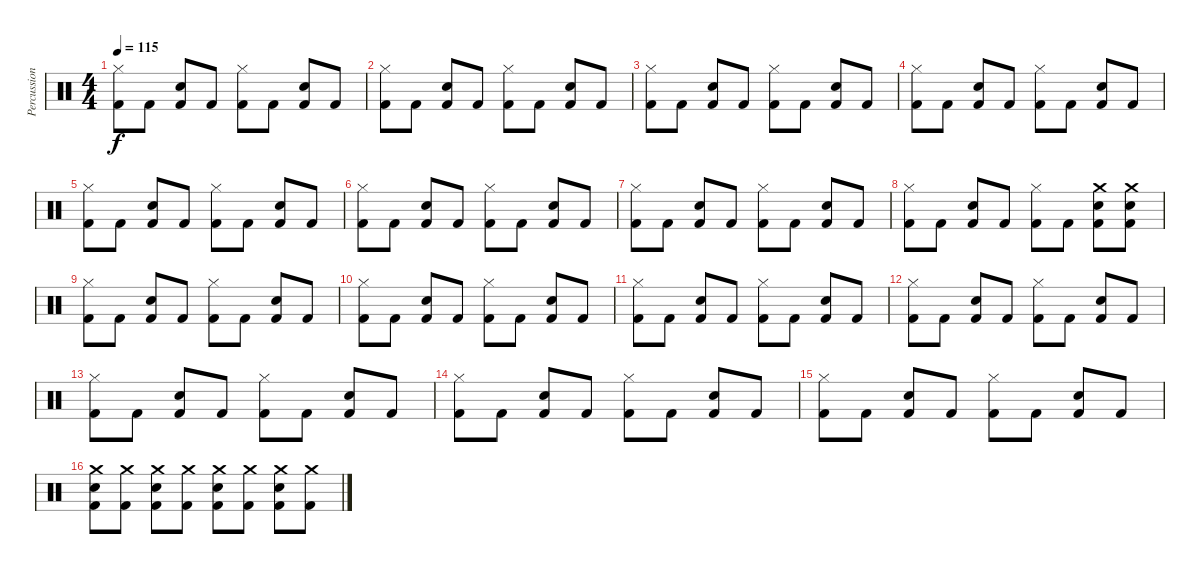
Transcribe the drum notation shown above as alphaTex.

\track ("Percussion" "Percussion") {instrument percussion}
\staff {score}
\articulation defaults
\ts (4 4)
\tempo 115
\clef neutral
\ks c
("Kick (hit) 2" "Hi-Hat (closed)").8{dy f} "Kick (hit) 2".8 ("Kick (hit) 2" "Snare (hit) 2").8 "Kick (hit) 2".8 ("Kick (hit) 2" "Hi-Hat (closed)").8 "Kick (hit) 2".8 ("Kick (hit) 2" "Snare (hit) 2").8 "Kick (hit) 2".8 |
("Kick (hit) 2" "Hi-Hat (closed)").8 "Kick (hit) 2".8 ("Kick (hit) 2" "Snare (hit) 2").8 "Kick (hit) 2".8 ("Kick (hit) 2" "Hi-Hat (closed)").8 "Kick (hit) 2".8 ("Kick (hit) 2" "Snare (hit) 2").8 "Kick (hit) 2".8 |
("Kick (hit) 2" "Hi-Hat (closed)").8 "Kick (hit) 2".8 ("Kick (hit) 2" "Snare (hit) 2").8 "Kick (hit) 2".8 ("Kick (hit) 2" "Hi-Hat (closed)").8 "Kick (hit) 2".8 ("Kick (hit) 2" "Snare (hit) 2").8 "Kick (hit) 2".8 |
("Kick (hit) 2" "Hi-Hat (closed)").8 "Kick (hit) 2".8 ("Kick (hit) 2" "Snare (hit) 2").8 "Kick (hit) 2".8 ("Kick (hit) 2" "Hi-Hat (closed)").8 "Kick (hit) 2".8 ("Kick (hit) 2" "Snare (hit) 2").8 "Kick (hit) 2".8 |
("Kick (hit) 2" "Hi-Hat (closed)").8 "Kick (hit) 2".8 ("Kick (hit) 2" "Snare (hit) 2").8 "Kick (hit) 2".8 ("Kick (hit) 2" "Hi-Hat (closed)").8 "Kick (hit) 2".8 ("Kick (hit) 2" "Snare (hit) 2").8 "Kick (hit) 2".8 |
("Kick (hit) 2" "Hi-Hat (closed)").8 "Kick (hit) 2".8 ("Kick (hit) 2" "Snare (hit) 2").8 "Kick (hit) 2".8 ("Kick (hit) 2" "Hi-Hat (closed)").8 "Kick (hit) 2".8 ("Kick (hit) 2" "Snare (hit) 2").8 "Kick (hit) 2".8 |
("Kick (hit) 2" "Hi-Hat (closed)").8 "Kick (hit) 2".8 ("Kick (hit) 2" "Snare (hit) 2").8 "Kick (hit) 2".8 ("Kick (hit) 2" "Hi-Hat (closed)").8 "Kick (hit) 2".8 ("Kick (hit) 2" "Snare (hit) 2").8 "Kick (hit) 2".8 |
("Kick (hit) 2" "Hi-Hat (closed)").8 "Kick (hit) 2".8 ("Kick (hit) 2" "Snare (hit) 2").8 "Kick (hit) 2".8 ("Kick (hit) 2" "Hi-Hat (closed)").8 "Kick (hit) 2".8 ("Kick (hit) 2" "Snare (hit) 2" "Crash medium (hit)").8 ("Kick (hit) 2" "Snare (hit) 2" "Crash medium (hit)").8 |
("Kick (hit) 2" "Hi-Hat (closed)").8 "Kick (hit) 2".8 ("Kick (hit) 2" "Snare (hit) 2").8 "Kick (hit) 2".8 ("Kick (hit) 2" "Hi-Hat (closed)").8 "Kick (hit) 2".8 ("Kick (hit) 2" "Snare (hit) 2").8 "Kick (hit) 2".8 |
("Kick (hit) 2" "Hi-Hat (closed)").8 "Kick (hit) 2".8 ("Kick (hit) 2" "Snare (hit) 2").8 "Kick (hit) 2".8 ("Kick (hit) 2" "Hi-Hat (closed)").8 "Kick (hit) 2".8 ("Kick (hit) 2" "Snare (hit) 2").8 "Kick (hit) 2".8 |
("Kick (hit) 2" "Hi-Hat (closed)").8 "Kick (hit) 2".8 ("Kick (hit) 2" "Snare (hit) 2").8 "Kick (hit) 2".8 ("Kick (hit) 2" "Hi-Hat (closed)").8 "Kick (hit) 2".8 ("Kick (hit) 2" "Snare (hit) 2").8 "Kick (hit) 2".8 |
("Kick (hit) 2" "Hi-Hat (closed)").8 "Kick (hit) 2".8 ("Kick (hit) 2" "Snare (hit) 2").8 "Kick (hit) 2".8 ("Kick (hit) 2" "Hi-Hat (closed)").8 "Kick (hit) 2".8 ("Kick (hit) 2" "Snare (hit) 2").8 "Kick (hit) 2".8 |
("Kick (hit) 2" "Hi-Hat (closed)").8 "Kick (hit) 2".8 ("Kick (hit) 2" "Snare (hit) 2").8 "Kick (hit) 2".8 ("Kick (hit) 2" "Hi-Hat (closed)").8 "Kick (hit) 2".8 ("Kick (hit) 2" "Snare (hit) 2").8 "Kick (hit) 2".8 |
("Kick (hit) 2" "Hi-Hat (closed)").8 "Kick (hit) 2".8 ("Kick (hit) 2" "Snare (hit) 2").8 "Kick (hit) 2".8 ("Kick (hit) 2" "Hi-Hat (closed)").8 "Kick (hit) 2".8 ("Kick (hit) 2" "Snare (hit) 2").8 "Kick (hit) 2".8 |
("Kick (hit) 2" "Hi-Hat (closed)").8 "Kick (hit) 2".8 ("Kick (hit) 2" "Snare (hit) 2").8 "Kick (hit) 2".8 ("Kick (hit) 2" "Hi-Hat (closed)").8 "Kick (hit) 2".8 ("Kick (hit) 2" "Snare (hit) 2").8 "Kick (hit) 2".8 |
("Kick (hit) 2" "Snare (hit) 2" "Crash medium (hit)").8 ("Kick (hit) 2" "Crash medium (hit)").8 ("Kick (hit) 2" "Snare (hit) 2" "Crash medium (hit)").8 ("Kick (hit) 2" "Crash medium (hit)").8 ("Kick (hit) 2" "Snare (hit) 2" "Crash medium (hit)").8 ("Kick (hit) 2" "Crash medium (hit)").8 ("Kick (hit) 2" "Snare (hit) 2" "Crash medium (hit)").8 ("Kick (hit) 2" "Crash medium (hit)").8
